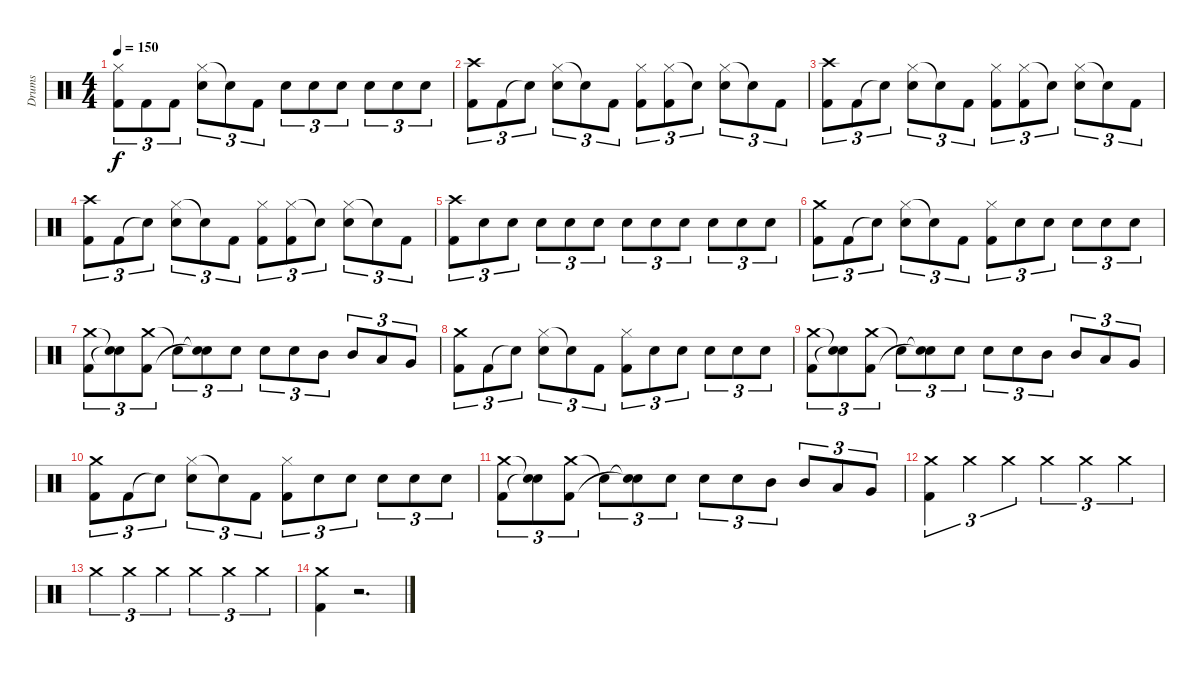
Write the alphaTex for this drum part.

\track ("Drums" "Drums") {instrument percussion}
\staff {score}
\articulation defaults
\ts (4 4)
\tempo 150
\clef neutral
\ks c
("Hi-Hat (closed)" "Kick (hit) 2").8{tu (3 2) dy f} "Kick (hit) 2".8{tu (3 2)} "Kick (hit) 2".8{tu (3 2)} ("Hi-Hat (closed)" "Electric Snare (hit)").8{tu (3 2)} "Snare (hit)"{t}.8{tu (3 2)} "Kick (hit) 2".8{tu (3 2)} "Electric Snare (hit)".8{tu (3 2)} "Electric Snare (hit)".8{tu (3 2)} "Electric Snare (hit)".8{tu (3 2)} "Electric Snare (hit)".8{tu (3 2)} "Electric Snare (hit)".8{tu (3 2)} "Electric Snare (hit)".8{tu (3 2)} |
("Crash high (hit)" "Kick (hit) 2").8{tu (3 2)} "Kick (hit) 2".8{tu (3 2)} "Snare (hit)"{t}.8{tu (3 2)} ("Hi-Hat (closed)" "Electric Snare (hit)").8{tu (3 2)} "Snare (hit)"{t}.8{tu (3 2)} "Kick (hit) 2".8{tu (3 2)} ("Hi-Hat (closed)" "Kick (hit) 2").8{tu (3 2)} ("Hi-Hat (closed)" "Kick (hit) 2").8{tu (3 2)} "Snare (hit)"{t}.8{tu (3 2)} ("Hi-Hat (closed)" "Electric Snare (hit)").8{tu (3 2)} "Snare (hit)"{t}.8{tu (3 2)} "Kick (hit) 2".8{tu (3 2)} |
("Crash high (hit)" "Kick (hit) 2").8{tu (3 2)} "Kick (hit) 2".8{tu (3 2)} "Snare (hit)"{t}.8{tu (3 2)} ("Hi-Hat (closed)" "Electric Snare (hit)").8{tu (3 2)} "Snare (hit)"{t}.8{tu (3 2)} "Kick (hit) 2".8{tu (3 2)} ("Hi-Hat (closed)" "Kick (hit) 2").8{tu (3 2)} ("Hi-Hat (closed)" "Kick (hit) 2").8{tu (3 2)} "Snare (hit)"{t}.8{tu (3 2)} ("Hi-Hat (closed)" "Electric Snare (hit)").8{tu (3 2)} "Snare (hit)"{t}.8{tu (3 2)} "Kick (hit) 2".8{tu (3 2)} |
("Crash high (hit)" "Kick (hit) 2").8{tu (3 2)} "Kick (hit) 2".8{tu (3 2)} "Snare (hit)"{t}.8{tu (3 2)} ("Hi-Hat (closed)" "Electric Snare (hit)").8{tu (3 2)} "Snare (hit)"{t}.8{tu (3 2)} "Kick (hit) 2".8{tu (3 2)} ("Hi-Hat (closed)" "Kick (hit) 2").8{tu (3 2)} ("Hi-Hat (closed)" "Kick (hit) 2").8{tu (3 2)} "Snare (hit)"{t}.8{tu (3 2)} ("Hi-Hat (closed)" "Electric Snare (hit)").8{tu (3 2)} "Snare (hit)"{t}.8{tu (3 2)} "Kick (hit) 2".8{tu (3 2)} |
("Crash high (hit)" "Kick (hit) 2").8{tu (3 2)} "Electric Snare (hit)".8{tu (3 2)} "Electric Snare (hit)".8{tu (3 2)} "Electric Snare (hit)".8{tu (3 2)} "Electric Snare (hit)".8{tu (3 2)} "Electric Snare (hit)".8{tu (3 2)} "Electric Snare (hit)".8{tu (3 2)} "Electric Snare (hit)".8{tu (3 2)} "Electric Snare (hit)".8{tu (3 2)} "Electric Snare (hit)".8{tu (3 2)} "Electric Snare (hit)".8{tu (3 2)} "Electric Snare (hit)".8{tu (3 2)} |
("Crash medium (hit)" "Kick (hit) 2").8{tu (3 2)} "Kick (hit) 2".8{tu (3 2)} "Snare (hit)"{t}.8{tu (3 2)} ("Hi-Hat (closed)" "Electric Snare (hit)").8{tu (3 2)} "Snare (hit)"{t}.8{tu (3 2)} "Kick (hit) 2".8{tu (3 2)} ("Hi-Hat (closed)" "Kick (hit) 2").8{tu (3 2)} "Electric Snare (hit)".8{tu (3 2)} "Electric Snare (hit)".8{tu (3 2)} "Electric Snare (hit)".8{tu (3 2)} "Electric Snare (hit)".8{tu (3 2)} "Electric Snare (hit)".8{tu (3 2)} |
("Crash medium (hit)" "Kick (hit) 2").8{tu (3 2)} ("Snare (hit)"{t} "Snare (hit)"{t}).8{tu (3 2)} ("Crash medium (hit)" "Kick (hit) 2").8{tu (3 2)} "Snare (hit)"{t}.8{tu (3 2)} ("Snare (hit)"{t} "Snare (hit)"{t}).8{tu (3 2)} "Electric Snare (hit)".8{tu (3 2)} "Electric Snare (hit)".8{tu (3 2)} "Electric Snare (hit)".8{tu (3 2)} "Mid Tom (hit)".8{tu (3 2)} "Mid Tom (hit)".8{tu (3 2)} "Low Tom (hit)".8{tu (3 2)} "Very Low Tom (hit)".8{tu (3 2)} |
("Crash medium (hit)" "Kick (hit) 2").8{tu (3 2)} "Kick (hit) 2".8{tu (3 2)} "Snare (hit)"{t}.8{tu (3 2)} ("Hi-Hat (closed)" "Electric Snare (hit)").8{tu (3 2)} "Snare (hit)"{t}.8{tu (3 2)} "Kick (hit) 2".8{tu (3 2)} ("Hi-Hat (closed)" "Kick (hit) 2").8{tu (3 2)} "Electric Snare (hit)".8{tu (3 2)} "Electric Snare (hit)".8{tu (3 2)} "Electric Snare (hit)".8{tu (3 2)} "Electric Snare (hit)".8{tu (3 2)} "Electric Snare (hit)".8{tu (3 2)} |
("Crash medium (hit)" "Kick (hit) 2").8{tu (3 2)} ("Snare (hit)"{t} "Snare (hit)"{t}).8{tu (3 2)} ("Crash medium (hit)" "Kick (hit) 2").8{tu (3 2)} "Snare (hit)"{t}.8{tu (3 2)} ("Snare (hit)"{t} "Snare (hit)"{t}).8{tu (3 2)} "Electric Snare (hit)".8{tu (3 2)} "Electric Snare (hit)".8{tu (3 2)} "Electric Snare (hit)".8{tu (3 2)} "Mid Tom (hit)".8{tu (3 2)} "Mid Tom (hit)".8{tu (3 2)} "Low Tom (hit)".8{tu (3 2)} "Very Low Tom (hit)".8{tu (3 2)} |
("Crash medium (hit)" "Kick (hit) 2").8{tu (3 2)} "Kick (hit) 2".8{tu (3 2)} "Snare (hit)"{t}.8{tu (3 2)} ("Hi-Hat (closed)" "Electric Snare (hit)").8{tu (3 2)} "Snare (hit)"{t}.8{tu (3 2)} "Kick (hit) 2".8{tu (3 2)} ("Hi-Hat (closed)" "Kick (hit) 2").8{tu (3 2)} "Electric Snare (hit)".8{tu (3 2)} "Electric Snare (hit)".8{tu (3 2)} "Electric Snare (hit)".8{tu (3 2)} "Electric Snare (hit)".8{tu (3 2)} "Electric Snare (hit)".8{tu (3 2)} |
("Crash medium (hit)" "Kick (hit) 2").8{tu (3 2)} ("Snare (hit)"{t} "Snare (hit)"{t}).8{tu (3 2)} ("Crash medium (hit)" "Kick (hit) 2").8{tu (3 2)} "Snare (hit)"{t}.8{tu (3 2)} ("Snare (hit)"{t} "Snare (hit)"{t}).8{tu (3 2)} "Electric Snare (hit)".8{tu (3 2)} "Electric Snare (hit)".8{tu (3 2)} "Electric Snare (hit)".8{tu (3 2)} "Mid Tom (hit)".8{tu (3 2)} "Mid Tom (hit)".8{tu (3 2)} "Low Tom (hit)".8{tu (3 2)} "Very Low Tom (hit)".8{tu (3 2)} |
("Crash medium (hit)" "Kick (hit) 2").4{tu (3 2)} "Crash medium (hit)".4{tu (3 2)} "Crash medium (hit)".4{tu (3 2)} "Crash medium (hit)".4{tu (3 2)} "Crash medium (hit)".4{tu (3 2)} "Crash medium (hit)".4{tu (3 2)} |
"Crash medium (hit)".4{tu (3 2)} "Crash medium (hit)".4{tu (3 2)} "Crash medium (hit)".4{tu (3 2)} "Crash medium (hit)".4{tu (3 2)} "Crash medium (hit)".4{tu (3 2)} "Crash medium (hit)".4{tu (3 2)} |
("Crash medium (hit)" "Kick (hit) 2").4 r.2{d}
